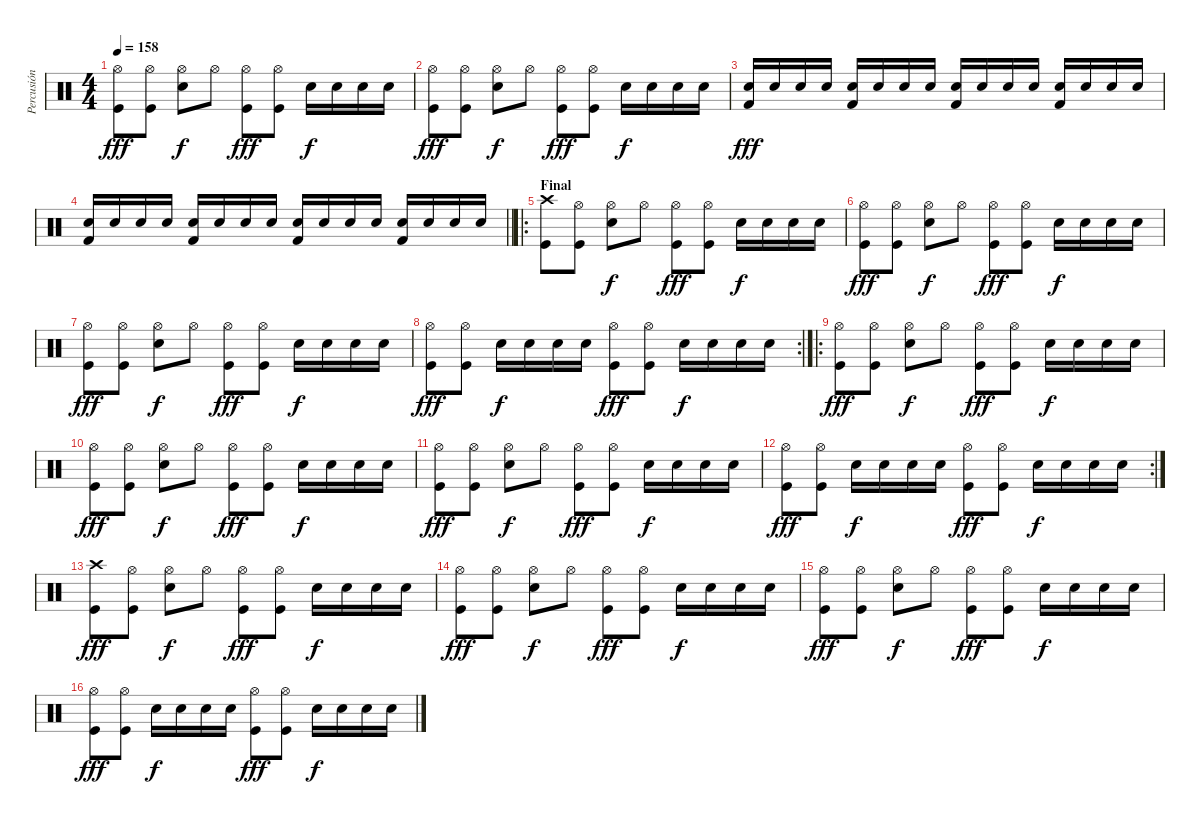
\track ("Percusión" "Percusión") {instrument percussion}
\staff {score}
\articulation defaults
\ts (4 4)
\tempo 158
\clef neutral
\ks c
("Hi-Hat (open)" "Kick (hit)").8{dy fff} ("Hi-Hat (open)" "Kick (hit)").8 ("Hi-Hat (open)" "Electric Snare (hit)").8{dy f} "Hi-Hat (open)".8 ("Hi-Hat (open)" "Kick (hit)").8{dy fff} ("Hi-Hat (open)" "Kick (hit)").8 "Electric Snare (hit)".16{dy f} "Electric Snare (hit)".16 "Electric Snare (hit)".16 "Electric Snare (hit)".16 |
("Hi-Hat (open)" "Kick (hit)").8{dy fff} ("Hi-Hat (open)" "Kick (hit)").8 ("Hi-Hat (open)" "Electric Snare (hit)").8{dy f} "Hi-Hat (open)".8 ("Hi-Hat (open)" "Kick (hit)").8{dy fff} ("Hi-Hat (open)" "Kick (hit)").8 "Electric Snare (hit)".16{dy f} "Electric Snare (hit)".16 "Electric Snare (hit)".16 "Electric Snare (hit)".16 |
("Electric Snare (hit)" "Kick (hit) 2").16{dy fff} "Electric Snare (hit)".16 "Electric Snare (hit)".16 "Electric Snare (hit)".16 ("Electric Snare (hit)" "Kick (hit) 2").16 "Electric Snare (hit)".16 "Electric Snare (hit)".16 "Electric Snare (hit)".16 ("Electric Snare (hit)" "Kick (hit) 2").16 "Electric Snare (hit)".16 "Electric Snare (hit)".16 "Electric Snare (hit)".16 ("Electric Snare (hit)" "Kick (hit) 2").16 "Electric Snare (hit)".16 "Electric Snare (hit)".16 "Electric Snare (hit)".16 |
\barLineRight lightlight
("Electric Snare (hit)" "Kick (hit) 2").16 "Electric Snare (hit)".16 "Electric Snare (hit)".16 "Electric Snare (hit)".16 ("Electric Snare (hit)" "Kick (hit) 2").16 "Electric Snare (hit)".16 "Electric Snare (hit)".16 "Electric Snare (hit)".16 ("Electric Snare (hit)" "Kick (hit) 2").16 "Electric Snare (hit)".16 "Electric Snare (hit)".16 "Electric Snare (hit)".16 ("Electric Snare (hit)" "Kick (hit) 2").16 "Electric Snare (hit)".16 "Electric Snare (hit)".16 "Electric Snare (hit)".16 |
\ro
\section ("" "Final")
("Crash high (hit)" "Kick (hit)").8 ("Hi-Hat (open)" "Kick (hit)").8 ("Hi-Hat (open)" "Electric Snare (hit)").8{dy f} "Hi-Hat (open)".8 ("Hi-Hat (open)" "Kick (hit)").8{dy fff} ("Hi-Hat (open)" "Kick (hit)").8 "Electric Snare (hit)".16{dy f} "Electric Snare (hit)".16 "Electric Snare (hit)".16 "Electric Snare (hit)".16 |
("Hi-Hat (open)" "Kick (hit)").8{dy fff} ("Hi-Hat (open)" "Kick (hit)").8 ("Hi-Hat (open)" "Electric Snare (hit)").8{dy f} "Hi-Hat (open)".8 ("Hi-Hat (open)" "Kick (hit)").8{dy fff} ("Hi-Hat (open)" "Kick (hit)").8 "Electric Snare (hit)".16{dy f} "Electric Snare (hit)".16 "Electric Snare (hit)".16 "Electric Snare (hit)".16 |
("Hi-Hat (open)" "Kick (hit)").8{dy fff} ("Hi-Hat (open)" "Kick (hit)").8 ("Hi-Hat (open)" "Electric Snare (hit)").8{dy f} "Hi-Hat (open)".8 ("Hi-Hat (open)" "Kick (hit)").8{dy fff} ("Hi-Hat (open)" "Kick (hit)").8 "Electric Snare (hit)".16{dy f} "Electric Snare (hit)".16 "Electric Snare (hit)".16 "Electric Snare (hit)".16 |
\rc 2
("Hi-Hat (open)" "Kick (hit)").8{dy fff} ("Hi-Hat (open)" "Kick (hit)").8 "Electric Snare (hit)".16{dy f} "Electric Snare (hit)".16 "Electric Snare (hit)".16 "Electric Snare (hit)".16 ("Hi-Hat (open)" "Kick (hit)").8{dy fff} ("Hi-Hat (open)" "Kick (hit)").8 "Electric Snare (hit)".16{dy f} "Electric Snare (hit)".16 "Electric Snare (hit)".16 "Electric Snare (hit)".16 |
\ro
("Hi-Hat (open)" "Kick (hit)").8{dy fff} ("Hi-Hat (open)" "Kick (hit)").8 ("Hi-Hat (open)" "Electric Snare (hit)").8{dy f} "Hi-Hat (open)".8 ("Hi-Hat (open)" "Kick (hit)").8{dy fff} ("Hi-Hat (open)" "Kick (hit)").8 "Electric Snare (hit)".16{dy f} "Electric Snare (hit)".16 "Electric Snare (hit)".16 "Electric Snare (hit)".16 |
("Hi-Hat (open)" "Kick (hit)").8{dy fff} ("Hi-Hat (open)" "Kick (hit)").8 ("Hi-Hat (open)" "Electric Snare (hit)").8{dy f} "Hi-Hat (open)".8 ("Hi-Hat (open)" "Kick (hit)").8{dy fff} ("Hi-Hat (open)" "Kick (hit)").8 "Electric Snare (hit)".16{dy f} "Electric Snare (hit)".16 "Electric Snare (hit)".16 "Electric Snare (hit)".16 |
("Hi-Hat (open)" "Kick (hit)").8{dy fff} ("Hi-Hat (open)" "Kick (hit)").8 ("Hi-Hat (open)" "Electric Snare (hit)").8{dy f} "Hi-Hat (open)".8 ("Hi-Hat (open)" "Kick (hit)").8{dy fff} ("Hi-Hat (open)" "Kick (hit)").8 "Electric Snare (hit)".16{dy f} "Electric Snare (hit)".16 "Electric Snare (hit)".16 "Electric Snare (hit)".16 |
\rc 2
("Hi-Hat (open)" "Kick (hit)").8{dy fff} ("Hi-Hat (open)" "Kick (hit)").8 "Electric Snare (hit)".16{dy f} "Electric Snare (hit)".16 "Electric Snare (hit)".16 "Electric Snare (hit)".16 ("Hi-Hat (open)" "Kick (hit)").8{dy fff} ("Hi-Hat (open)" "Kick (hit)").8 "Electric Snare (hit)".16{dy f} "Electric Snare (hit)".16 "Electric Snare (hit)".16 "Electric Snare (hit)".16 |
("Crash high (hit)" "Kick (hit)").8{dy fff} ("Hi-Hat (open)" "Kick (hit)").8 ("Hi-Hat (open)" "Electric Snare (hit)").8{dy f} "Hi-Hat (open)".8 ("Hi-Hat (open)" "Kick (hit)").8{dy fff} ("Hi-Hat (open)" "Kick (hit)").8 "Electric Snare (hit)".16{dy f} "Electric Snare (hit)".16 "Electric Snare (hit)".16 "Electric Snare (hit)".16 |
("Hi-Hat (open)" "Kick (hit)").8{dy fff} ("Hi-Hat (open)" "Kick (hit)").8 ("Hi-Hat (open)" "Electric Snare (hit)").8{dy f} "Hi-Hat (open)".8 ("Hi-Hat (open)" "Kick (hit)").8{dy fff} ("Hi-Hat (open)" "Kick (hit)").8 "Electric Snare (hit)".16{dy f} "Electric Snare (hit)".16 "Electric Snare (hit)".16 "Electric Snare (hit)".16 |
("Hi-Hat (open)" "Kick (hit)").8{dy fff} ("Hi-Hat (open)" "Kick (hit)").8 ("Hi-Hat (open)" "Electric Snare (hit)").8{dy f} "Hi-Hat (open)".8 ("Hi-Hat (open)" "Kick (hit)").8{dy fff} ("Hi-Hat (open)" "Kick (hit)").8 "Electric Snare (hit)".16{dy f} "Electric Snare (hit)".16 "Electric Snare (hit)".16 "Electric Snare (hit)".16 |
("Hi-Hat (open)" "Kick (hit)").8{dy fff} ("Hi-Hat (open)" "Kick (hit)").8 "Electric Snare (hit)".16{dy f} "Electric Snare (hit)".16 "Electric Snare (hit)".16 "Electric Snare (hit)".16 ("Hi-Hat (open)" "Kick (hit)").8{dy fff} ("Hi-Hat (open)" "Kick (hit)").8 "Electric Snare (hit)".16{dy f} "Electric Snare (hit)".16 "Electric Snare (hit)".16 "Electric Snare (hit)".16
